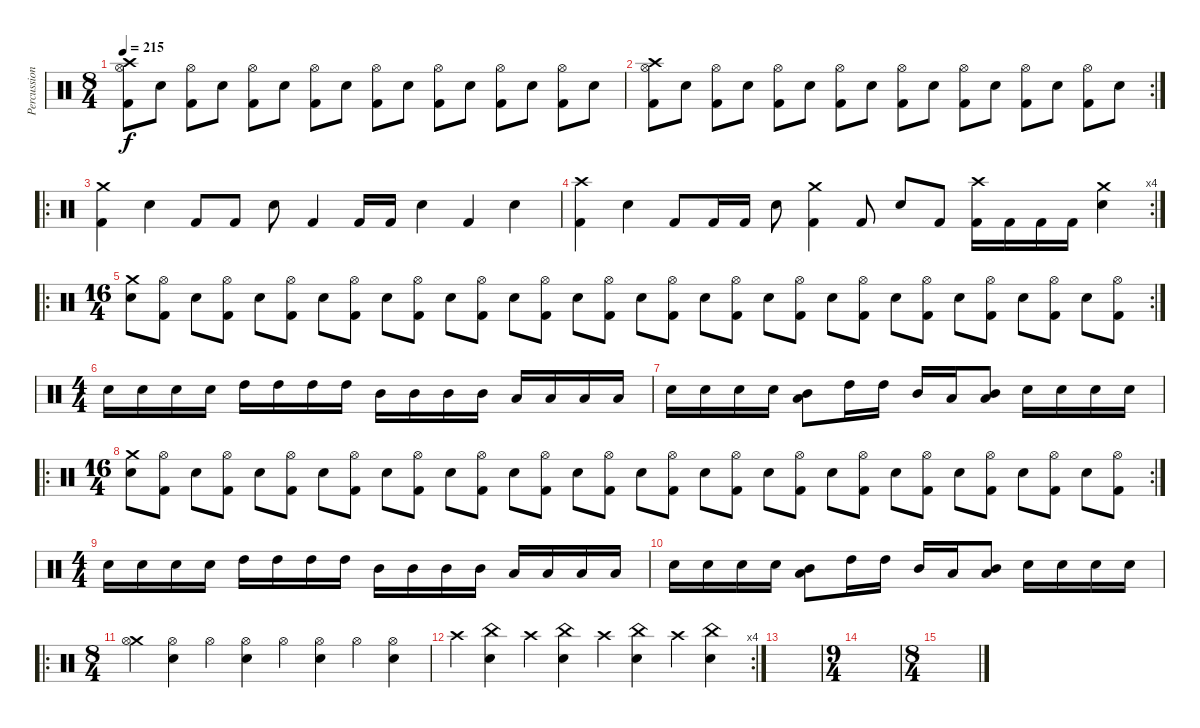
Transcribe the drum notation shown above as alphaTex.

\track ("Percussion" "Percussion") {instrument percussion}
\staff {score}
\articulation defaults
\ts (8 4)
\tempo 215
\clef neutral
\ks c
("Crash high (hit)" "Hi-Hat (open)" "Kick (hit) 2").8{dy f} "Snare (hit) 2".8 ("Hi-Hat (open)" "Kick (hit) 2").8 "Snare (hit) 2".8 ("Hi-Hat (open)" "Kick (hit) 2").8 "Snare (hit) 2".8 ("Hi-Hat (open)" "Kick (hit) 2").8 "Snare (hit) 2".8 ("Hi-Hat (open)" "Kick (hit) 2").8 "Snare (hit) 2".8 ("Hi-Hat (open)" "Kick (hit) 2").8 "Snare (hit) 2".8 ("Hi-Hat (open)" "Kick (hit) 2").8 "Snare (hit) 2".8 ("Hi-Hat (open)" "Kick (hit) 2").8 "Snare (hit) 2".8 |
\rc 2
("Crash high (hit)" "Hi-Hat (open)" "Kick (hit) 2").8 "Snare (hit) 2".8 ("Hi-Hat (open)" "Kick (hit) 2").8 "Snare (hit) 2".8 ("Hi-Hat (open)" "Kick (hit) 2").8 "Snare (hit) 2".8 ("Hi-Hat (open)" "Kick (hit) 2").8 "Snare (hit) 2".8 ("Hi-Hat (open)" "Kick (hit) 2").8 "Snare (hit) 2".8 ("Hi-Hat (open)" "Kick (hit) 2").8 "Snare (hit) 2".8 ("Hi-Hat (open)" "Kick (hit) 2").8 "Snare (hit) 2".8 ("Hi-Hat (open)" "Kick (hit) 2").8 "Snare (hit) 2".8 |
\ro
("Crash medium (hit)" "Kick (hit) 2").4 "Snare (hit) 2".4 "Kick (hit) 2".8 "Kick (hit) 2".8 "Snare (hit) 2".8 "Kick (hit) 2".4 "Kick (hit) 2".16 "Kick (hit) 2".16 "Snare (hit) 2".4 "Kick (hit) 2".4 "Snare (hit) 2".4 |
\rc 4
("Crash high (hit)" "Kick (hit) 2").4 "Snare (hit) 2".4 "Kick (hit) 2".8 "Kick (hit) 2".16 "Kick (hit) 2".16 "Snare (hit) 2".8 ("Crash medium (hit)" "Kick (hit) 2").4 "Kick (hit) 2".8 "Snare (hit) 2".8 "Kick (hit) 2".8 ("Crash high (hit)" "Kick (hit) 2").16 "Kick (hit) 2".16 "Kick (hit) 2".16 "Kick (hit) 2".16 ("Crash medium (hit)" "Snare (hit) 2").4 |
\ro
\rc 2
\ts (16 4)
("Crash medium (hit)" "Snare (hit) 2").8 ("Hi-Hat (open)" "Kick (hit) 2").8 "Snare (hit) 2".8 ("Hi-Hat (open)" "Kick (hit) 2").8 "Snare (hit) 2".8 ("Hi-Hat (open)" "Kick (hit) 2").8 "Snare (hit) 2".8 ("Hi-Hat (open)" "Kick (hit) 2").8 "Snare (hit) 2".8 ("Hi-Hat (open)" "Kick (hit) 2").8 "Snare (hit) 2".8 ("Hi-Hat (open)" "Kick (hit) 2").8 "Snare (hit) 2".8 ("Hi-Hat (open)" "Kick (hit) 2").8 "Snare (hit) 2".8 ("Hi-Hat (open)" "Kick (hit) 2").8 "Snare (hit) 2".8 ("Hi-Hat (open)" "Kick (hit) 2").8 "Snare (hit) 2".8 ("Hi-Hat (open)" "Kick (hit) 2").8 "Snare (hit) 2".8 ("Hi-Hat (open)" "Kick (hit) 2").8 "Snare (hit) 2".8 ("Hi-Hat (open)" "Kick (hit) 2").8 "Snare (hit) 2".8 ("Hi-Hat (open)" "Kick (hit) 2").8 "Snare (hit) 2".8 ("Hi-Hat (open)" "Kick (hit) 2").8 "Snare (hit) 2".8 ("Hi-Hat (open)" "Kick (hit) 2").8 "Snare (hit) 2".8 ("Hi-Hat (open)" "Kick (hit) 2").8 |
\ts (4 4)
"Snare (hit) 2".16 "Snare (hit) 2".16 "Snare (hit) 2".16 "Snare (hit) 2".16 "High Tom (hit)".16 "High Tom (hit)".16 "High Tom (hit)".16 "High Tom (hit)".16 "Mid Tom (hit)".16 "Mid Tom (hit)".16 "Mid Tom (hit)".16 "Mid Tom (hit)".16 "Low Tom (hit)".16 "Low Tom (hit)".16 "Low Tom (hit)".16 "Low Tom (hit)".16 |
"Snare (hit) 2".16 "Snare (hit) 2".16 "Snare (hit) 2".16 "Snare (hit) 2".16 ("Mid Tom (hit)" "Low Tom (hit)").8 "High Tom (hit)".16 "High Tom (hit)".16 "Mid Tom (hit)".16 "Low Tom (hit)".16 ("Mid Tom (hit)" "Low Tom (hit)").8 "Snare (hit) 2".16 "Snare (hit) 2".16 "Snare (hit) 2".16 "Snare (hit) 2".16 |
\ro
\rc 2
\ts (16 4)
("Crash medium (hit)" "Snare (hit) 2").8 ("Hi-Hat (open)" "Kick (hit) 2").8 "Snare (hit) 2".8 ("Hi-Hat (open)" "Kick (hit) 2").8 "Snare (hit) 2".8 ("Hi-Hat (open)" "Kick (hit) 2").8 "Snare (hit) 2".8 ("Hi-Hat (open)" "Kick (hit) 2").8 "Snare (hit) 2".8 ("Hi-Hat (open)" "Kick (hit) 2").8 "Snare (hit) 2".8 ("Hi-Hat (open)" "Kick (hit) 2").8 "Snare (hit) 2".8 ("Hi-Hat (open)" "Kick (hit) 2").8 "Snare (hit) 2".8 ("Hi-Hat (open)" "Kick (hit) 2").8 "Snare (hit) 2".8 ("Hi-Hat (open)" "Kick (hit) 2").8 "Snare (hit) 2".8 ("Hi-Hat (open)" "Kick (hit) 2").8 "Snare (hit) 2".8 ("Hi-Hat (open)" "Kick (hit) 2").8 "Snare (hit) 2".8 ("Hi-Hat (open)" "Kick (hit) 2").8 "Snare (hit) 2".8 ("Hi-Hat (open)" "Kick (hit) 2").8 "Snare (hit) 2".8 ("Hi-Hat (open)" "Kick (hit) 2").8 "Snare (hit) 2".8 ("Hi-Hat (open)" "Kick (hit) 2").8 "Snare (hit) 2".8 ("Hi-Hat (open)" "Kick (hit) 2").8 |
\ts (4 4)
"Snare (hit) 2".16 "Snare (hit) 2".16 "Snare (hit) 2".16 "Snare (hit) 2".16 "High Tom (hit)".16 "High Tom (hit)".16 "High Tom (hit)".16 "High Tom (hit)".16 "Mid Tom (hit)".16 "Mid Tom (hit)".16 "Mid Tom (hit)".16 "Mid Tom (hit)".16 "Low Tom (hit)".16 "Low Tom (hit)".16 "Low Tom (hit)".16 "Low Tom (hit)".16 |
"Snare (hit) 2".16 "Snare (hit) 2".16 "Snare (hit) 2".16 "Snare (hit) 2".16 ("Mid Tom (hit)" "Low Tom (hit)").8 "High Tom (hit)".16 "High Tom (hit)".16 "Mid Tom (hit)".16 "Low Tom (hit)".16 ("Mid Tom (hit)" "Low Tom (hit)").8 "Snare (hit) 2".16 "Snare (hit) 2".16 "Snare (hit) 2".16 "Snare (hit) 2".16 |
\ro
\ts (8 4)
("Crash medium (hit)" "Hi-Hat (open)").4 ("Hi-Hat (open)" "Snare (hit) 2").4 "Hi-Hat (open)".4 ("Hi-Hat (open)" "Snare (hit) 2").4 "Hi-Hat (open)".4 ("Hi-Hat (open)" "Snare (hit) 2").4 "Hi-Hat (open)".4 ("Hi-Hat (open)" "Snare (hit) 2").4 |
\rc 4 "Crash high (hit)".4
("China (hit)" "Snare (hit) 2").4 "Crash high (hit)".4 ("China (hit)" "Snare (hit) 2").4 "Crash high (hit)".4 ("China (hit)" "Snare (hit) 2").4 "Crash high (hit)".4 ("China (hit)" "Snare (hit) 2").4 |
|
\ts (9 4)
|
\ts (8 4)
